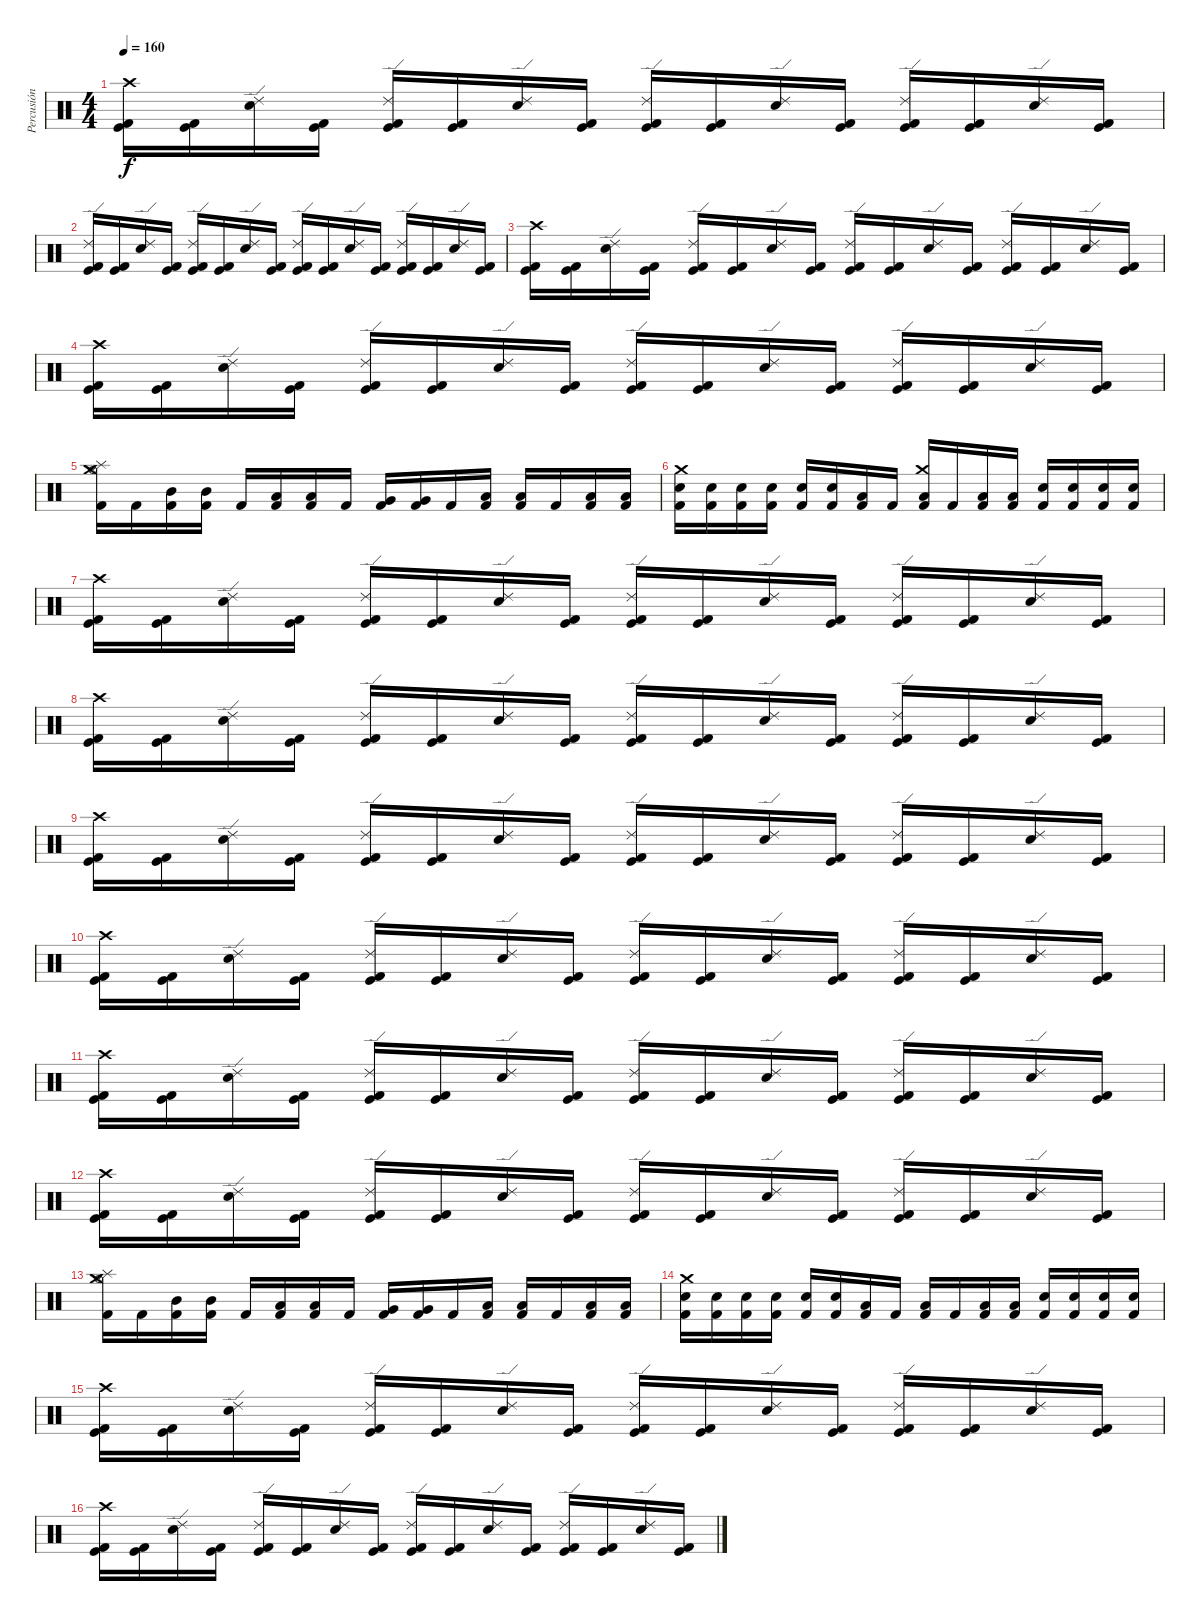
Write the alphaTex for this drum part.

\track ("Percusión" "Percusión") {instrument percussion}
\staff {score}
\articulation defaults
\ts (4 4)
\tempo 160
\clef neutral
\ks c
("Kick (hit)" "Kick (hit) 2" "Crash high (hit)").16{dy f} ("Kick (hit)" "Kick (hit) 2").16 ("Electric Snare (hit)" "Ride (edge) 2").16 ("Kick (hit)" "Kick (hit) 2").16 ("Kick (hit)" "Kick (hit) 2" "Ride (edge) 2").16 ("Kick (hit)" "Kick (hit) 2").16 ("Electric Snare (hit)" "Ride (edge) 2").16 ("Kick (hit)" "Kick (hit) 2").16 ("Kick (hit)" "Kick (hit) 2" "Ride (edge) 2").16 ("Kick (hit)" "Kick (hit) 2").16 ("Electric Snare (hit)" "Ride (edge) 2").16 ("Kick (hit)" "Kick (hit) 2").16 ("Kick (hit)" "Kick (hit) 2" "Ride (edge) 2").16 ("Kick (hit)" "Kick (hit) 2").16 ("Electric Snare (hit)" "Ride (edge) 2").16 ("Kick (hit)" "Kick (hit) 2").16 |
("Kick (hit)" "Kick (hit) 2" "Ride (edge) 2").16 ("Kick (hit)" "Kick (hit) 2").16 ("Electric Snare (hit)" "Ride (edge) 2").16 ("Kick (hit)" "Kick (hit) 2").16 ("Kick (hit)" "Kick (hit) 2" "Ride (edge) 2").16 ("Kick (hit)" "Kick (hit) 2").16 ("Electric Snare (hit)" "Ride (edge) 2").16 ("Kick (hit)" "Kick (hit) 2").16 ("Kick (hit)" "Kick (hit) 2" "Ride (edge) 2").16 ("Kick (hit)" "Kick (hit) 2").16 ("Electric Snare (hit)" "Ride (edge) 2").16 ("Kick (hit)" "Kick (hit) 2").16 ("Kick (hit)" "Kick (hit) 2" "Ride (edge) 2").16 ("Kick (hit)" "Kick (hit) 2").16 ("Electric Snare (hit)" "Ride (edge) 2").16 ("Kick (hit)" "Kick (hit) 2").16 |
("Kick (hit)" "Kick (hit) 2" "Crash high (hit)").16 ("Kick (hit)" "Kick (hit) 2").16 ("Electric Snare (hit)" "Ride (edge) 2").16 ("Kick (hit)" "Kick (hit) 2").16 ("Kick (hit)" "Kick (hit) 2" "Ride (edge) 2").16 ("Kick (hit)" "Kick (hit) 2").16 ("Electric Snare (hit)" "Ride (edge) 2").16 ("Kick (hit)" "Kick (hit) 2").16 ("Kick (hit)" "Kick (hit) 2" "Ride (edge) 2").16 ("Kick (hit)" "Kick (hit) 2").16 ("Electric Snare (hit)" "Ride (edge) 2").16 ("Kick (hit)" "Kick (hit) 2").16 ("Kick (hit)" "Kick (hit) 2" "Ride (edge) 2").16 ("Kick (hit)" "Kick (hit) 2").16 ("Electric Snare (hit)" "Ride (edge) 2").16 ("Kick (hit)" "Kick (hit) 2").16 |
("Kick (hit)" "Kick (hit) 2" "Crash high (hit)").16 ("Kick (hit)" "Kick (hit) 2").16 ("Electric Snare (hit)" "Ride (edge) 2").16 ("Kick (hit)" "Kick (hit) 2").16 ("Kick (hit)" "Kick (hit) 2" "Ride (edge) 2").16 ("Kick (hit)" "Kick (hit) 2").16 ("Electric Snare (hit)" "Ride (edge) 2").16 ("Kick (hit)" "Kick (hit) 2").16 ("Kick (hit)" "Kick (hit) 2" "Ride (edge) 2").16 ("Kick (hit)" "Kick (hit) 2").16 ("Electric Snare (hit)" "Ride (edge) 2").16 ("Kick (hit)" "Kick (hit) 2").16 ("Kick (hit)" "Kick (hit) 2" "Ride (edge) 2").16 ("Kick (hit)" "Kick (hit) 2").16 ("Electric Snare (hit)" "Ride (edge) 2").16 ("Kick (hit)" "Kick (hit) 2").16 |
("Splash (hit)" "Hi-Hat (open)" "Crash medium (hit)" "Kick (hit) 2").16 "Kick (hit) 2".16 ("Mid Tom (hit)" "Kick (hit) 2").16 ("Mid Tom (hit)" "Kick (hit) 2").16 "Kick (hit) 2".16 ("Low Tom (hit)" "Kick (hit) 2").16 ("Low Tom (hit)" "Kick (hit) 2").16 "Kick (hit) 2".16 ("Very Low Tom (hit)" "Kick (hit) 2").16 ("Very Low Tom (hit)" "Kick (hit) 2").16 "Kick (hit) 2".16 ("Low Floor Tom (hit)" "Kick (hit) 2").16 ("Low Floor Tom (hit)" "Kick (hit) 2").16 "Kick (hit) 2".16 ("Low Floor Tom (hit)" "Kick (hit) 2").16 ("Low Floor Tom (hit)" "Kick (hit) 2").16 |
("Kick (hit) 2" "Electric Snare (hit)" "Crash medium (hit)").16 ("Kick (hit) 2" "Electric Snare (hit)").16 ("Kick (hit) 2" "Electric Snare (hit)").16 ("Kick (hit) 2" "Electric Snare (hit)").16 ("Kick (hit) 2" "Electric Snare (hit)").16 ("Kick (hit) 2" "Electric Snare (hit)").16 ("Kick (hit) 2" "Low Tom (hit)").16 "Kick (hit) 2".16 ("Kick (hit) 2" "Low Tom (hit)" "Crash medium (hit)").16 "Kick (hit) 2".16 ("Kick (hit) 2" "Low Tom (hit)").16 ("Kick (hit) 2" "Low Tom (hit)").16 ("Kick (hit) 2" "Electric Snare (hit)").16 ("Kick (hit) 2" "Electric Snare (hit)").16 ("Kick (hit) 2" "Electric Snare (hit)").16 ("Kick (hit) 2" "Electric Snare (hit)").16 |
("Kick (hit)" "Kick (hit) 2" "Crash high (hit)").16 ("Kick (hit)" "Kick (hit) 2").16 ("Electric Snare (hit)" "Ride (edge) 2").16 ("Kick (hit)" "Kick (hit) 2").16 ("Kick (hit)" "Kick (hit) 2" "Ride (edge) 2").16 ("Kick (hit)" "Kick (hit) 2").16 ("Electric Snare (hit)" "Ride (edge) 2").16 ("Kick (hit)" "Kick (hit) 2").16 ("Kick (hit)" "Kick (hit) 2" "Ride (edge) 2").16 ("Kick (hit)" "Kick (hit) 2").16 ("Electric Snare (hit)" "Ride (edge) 2").16 ("Kick (hit)" "Kick (hit) 2").16 ("Kick (hit)" "Kick (hit) 2" "Ride (edge) 2").16 ("Kick (hit)" "Kick (hit) 2").16 ("Electric Snare (hit)" "Ride (edge) 2").16 ("Kick (hit)" "Kick (hit) 2").16 |
("Kick (hit)" "Kick (hit) 2" "Crash high (hit)").16 ("Kick (hit)" "Kick (hit) 2").16 ("Electric Snare (hit)" "Ride (edge) 2").16 ("Kick (hit)" "Kick (hit) 2").16 ("Kick (hit)" "Kick (hit) 2" "Ride (edge) 2").16 ("Kick (hit)" "Kick (hit) 2").16 ("Electric Snare (hit)" "Ride (edge) 2").16 ("Kick (hit)" "Kick (hit) 2").16 ("Kick (hit)" "Kick (hit) 2" "Ride (edge) 2").16 ("Kick (hit)" "Kick (hit) 2").16 ("Electric Snare (hit)" "Ride (edge) 2").16 ("Kick (hit)" "Kick (hit) 2").16 ("Kick (hit)" "Kick (hit) 2" "Ride (edge) 2").16 ("Kick (hit)" "Kick (hit) 2").16 ("Electric Snare (hit)" "Ride (edge) 2").16 ("Kick (hit)" "Kick (hit) 2").16 |
("Kick (hit)" "Kick (hit) 2" "Crash high (hit)").16 ("Kick (hit)" "Kick (hit) 2").16 ("Electric Snare (hit)" "Ride (edge) 2").16 ("Kick (hit)" "Kick (hit) 2").16 ("Kick (hit)" "Kick (hit) 2" "Ride (edge) 2").16 ("Kick (hit)" "Kick (hit) 2").16 ("Electric Snare (hit)" "Ride (edge) 2").16 ("Kick (hit)" "Kick (hit) 2").16 ("Kick (hit)" "Kick (hit) 2" "Ride (edge) 2").16 ("Kick (hit)" "Kick (hit) 2").16 ("Electric Snare (hit)" "Ride (edge) 2").16 ("Kick (hit)" "Kick (hit) 2").16 ("Kick (hit)" "Kick (hit) 2" "Ride (edge) 2").16 ("Kick (hit)" "Kick (hit) 2").16 ("Electric Snare (hit)" "Ride (edge) 2").16 ("Kick (hit)" "Kick (hit) 2").16 |
("Kick (hit)" "Kick (hit) 2" "Crash high (hit)").16 ("Kick (hit)" "Kick (hit) 2").16 ("Electric Snare (hit)" "Ride (edge) 2").16 ("Kick (hit)" "Kick (hit) 2").16 ("Kick (hit)" "Kick (hit) 2" "Ride (edge) 2").16 ("Kick (hit)" "Kick (hit) 2").16 ("Electric Snare (hit)" "Ride (edge) 2").16 ("Kick (hit)" "Kick (hit) 2").16 ("Kick (hit)" "Kick (hit) 2" "Ride (edge) 2").16 ("Kick (hit)" "Kick (hit) 2").16 ("Electric Snare (hit)" "Ride (edge) 2").16 ("Kick (hit)" "Kick (hit) 2").16 ("Kick (hit)" "Kick (hit) 2" "Ride (edge) 2").16 ("Kick (hit)" "Kick (hit) 2").16 ("Electric Snare (hit)" "Ride (edge) 2").16 ("Kick (hit)" "Kick (hit) 2").16 |
("Kick (hit)" "Kick (hit) 2" "Crash high (hit)").16 ("Kick (hit)" "Kick (hit) 2").16 ("Electric Snare (hit)" "Ride (edge) 2").16 ("Kick (hit)" "Kick (hit) 2").16 ("Kick (hit)" "Kick (hit) 2" "Ride (edge) 2").16 ("Kick (hit)" "Kick (hit) 2").16 ("Electric Snare (hit)" "Ride (edge) 2").16 ("Kick (hit)" "Kick (hit) 2").16 ("Kick (hit)" "Kick (hit) 2" "Ride (edge) 2").16 ("Kick (hit)" "Kick (hit) 2").16 ("Electric Snare (hit)" "Ride (edge) 2").16 ("Kick (hit)" "Kick (hit) 2").16 ("Kick (hit)" "Kick (hit) 2" "Ride (edge) 2").16 ("Kick (hit)" "Kick (hit) 2").16 ("Electric Snare (hit)" "Ride (edge) 2").16 ("Kick (hit)" "Kick (hit) 2").16 |
("Kick (hit)" "Kick (hit) 2" "Crash high (hit)").16 ("Kick (hit)" "Kick (hit) 2").16 ("Electric Snare (hit)" "Ride (edge) 2").16 ("Kick (hit)" "Kick (hit) 2").16 ("Kick (hit)" "Kick (hit) 2" "Ride (edge) 2").16 ("Kick (hit)" "Kick (hit) 2").16 ("Electric Snare (hit)" "Ride (edge) 2").16 ("Kick (hit)" "Kick (hit) 2").16 ("Kick (hit)" "Kick (hit) 2" "Ride (edge) 2").16 ("Kick (hit)" "Kick (hit) 2").16 ("Electric Snare (hit)" "Ride (edge) 2").16 ("Kick (hit)" "Kick (hit) 2").16 ("Kick (hit)" "Kick (hit) 2" "Ride (edge) 2").16 ("Kick (hit)" "Kick (hit) 2").16 ("Electric Snare (hit)" "Ride (edge) 2").16 ("Kick (hit)" "Kick (hit) 2").16 |
("Splash (hit)" "Hi-Hat (open)" "Crash medium (hit)" "Kick (hit) 2").16 "Kick (hit) 2".16 ("Mid Tom (hit)" "Kick (hit) 2").16 ("Mid Tom (hit)" "Kick (hit) 2").16 "Kick (hit) 2".16 ("Low Tom (hit)" "Kick (hit) 2").16 ("Low Tom (hit)" "Kick (hit) 2").16 "Kick (hit) 2".16 ("Very Low Tom (hit)" "Kick (hit) 2").16 ("Very Low Tom (hit)" "Kick (hit) 2").16 "Kick (hit) 2".16 ("Low Floor Tom (hit)" "Kick (hit) 2").16 ("Low Floor Tom (hit)" "Kick (hit) 2").16 "Kick (hit) 2".16 ("Low Floor Tom (hit)" "Kick (hit) 2").16 ("Low Floor Tom (hit)" "Kick (hit) 2").16 |
("Kick (hit) 2" "Electric Snare (hit)" "Crash medium (hit)").16 ("Kick (hit) 2" "Electric Snare (hit)").16 ("Kick (hit) 2" "Electric Snare (hit)").16 ("Kick (hit) 2" "Electric Snare (hit)").16 ("Kick (hit) 2" "Electric Snare (hit)").16 ("Kick (hit) 2" "Electric Snare (hit)").16 ("Kick (hit) 2" "Low Tom (hit)").16 "Kick (hit) 2".16 ("Kick (hit) 2" "Low Tom (hit)").16 "Kick (hit) 2".16 ("Kick (hit) 2" "Low Tom (hit)").16 ("Kick (hit) 2" "Low Tom (hit)").16 ("Kick (hit) 2" "Electric Snare (hit)").16 ("Kick (hit) 2" "Electric Snare (hit)").16 ("Kick (hit) 2" "Electric Snare (hit)").16 ("Kick (hit) 2" "Electric Snare (hit)").16 |
("Kick (hit)" "Kick (hit) 2" "Crash high (hit)").16 ("Kick (hit)" "Kick (hit) 2").16 ("Electric Snare (hit)" "Ride (edge) 2").16 ("Kick (hit)" "Kick (hit) 2").16 ("Kick (hit)" "Kick (hit) 2" "Ride (edge) 2").16 ("Kick (hit)" "Kick (hit) 2").16 ("Electric Snare (hit)" "Ride (edge) 2").16 ("Kick (hit)" "Kick (hit) 2").16 ("Kick (hit)" "Kick (hit) 2" "Ride (edge) 2").16 ("Kick (hit)" "Kick (hit) 2").16 ("Electric Snare (hit)" "Ride (edge) 2").16 ("Kick (hit)" "Kick (hit) 2").16 ("Kick (hit)" "Kick (hit) 2" "Ride (edge) 2").16 ("Kick (hit)" "Kick (hit) 2").16 ("Electric Snare (hit)" "Ride (edge) 2").16 ("Kick (hit)" "Kick (hit) 2").16 |
("Kick (hit)" "Kick (hit) 2" "Crash high (hit)").16 ("Kick (hit)" "Kick (hit) 2").16 ("Electric Snare (hit)" "Ride (edge) 2").16 ("Kick (hit)" "Kick (hit) 2").16 ("Kick (hit)" "Kick (hit) 2" "Ride (edge) 2").16 ("Kick (hit)" "Kick (hit) 2").16 ("Electric Snare (hit)" "Ride (edge) 2").16 ("Kick (hit)" "Kick (hit) 2").16 ("Kick (hit)" "Kick (hit) 2" "Ride (edge) 2").16 ("Kick (hit)" "Kick (hit) 2").16 ("Electric Snare (hit)" "Ride (edge) 2").16 ("Kick (hit)" "Kick (hit) 2").16 ("Kick (hit)" "Kick (hit) 2" "Ride (edge) 2").16 ("Kick (hit)" "Kick (hit) 2").16 ("Electric Snare (hit)" "Ride (edge) 2").16 ("Kick (hit)" "Kick (hit) 2").16
